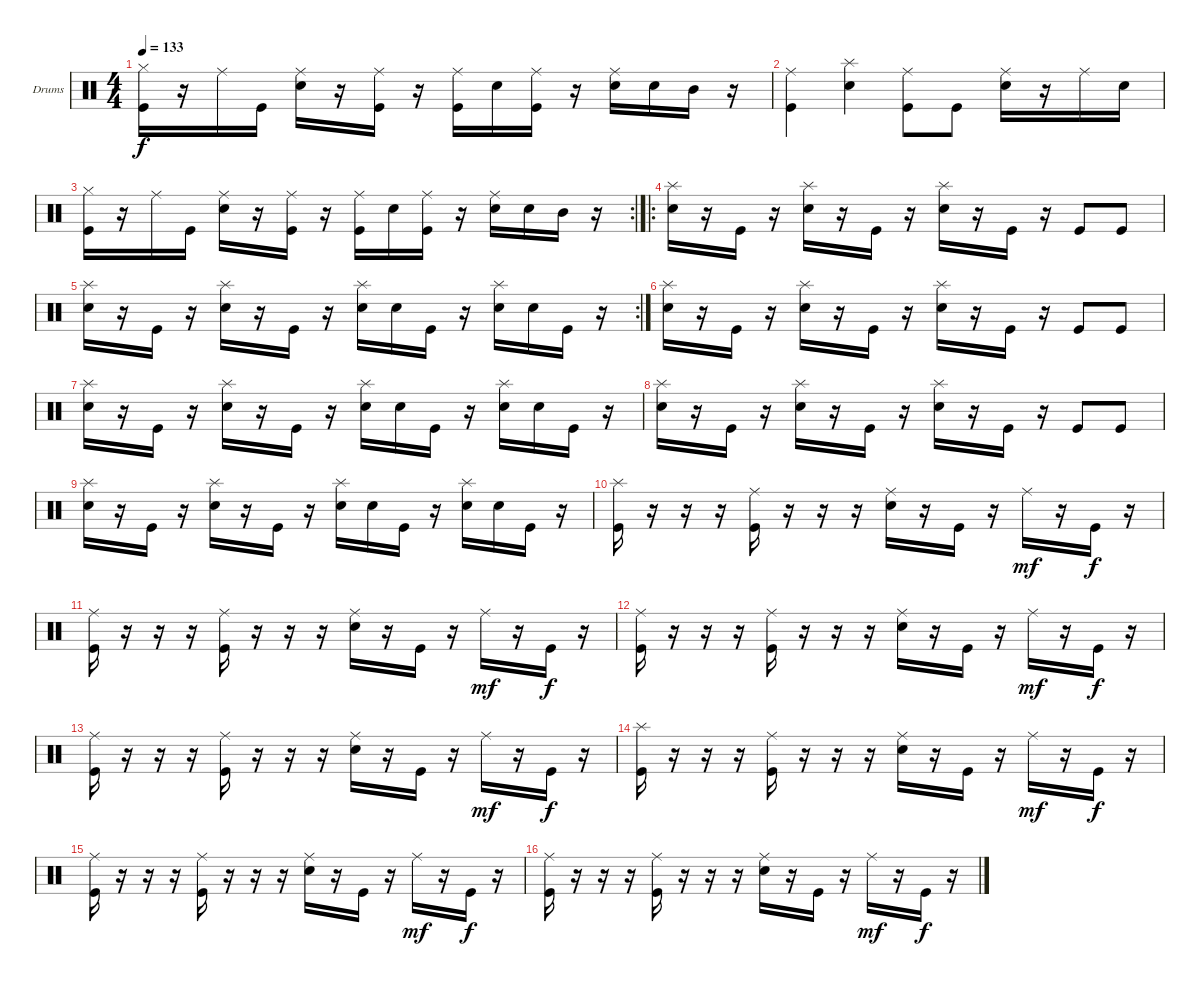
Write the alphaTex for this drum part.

\bracketExtendMode groupsimilarinstruments
\firstSystemTrackNameOrientation horizontal
\otherSystemsTrackNameOrientation horizontal
\track ("Drumkit" "Drums") {instrument percussion}
\staff {score}
\articulation defaults
\ts (4 4)
\tempo 133
\clef neutral
\ks c
("Kick (hit)" "Hi-Hat (closed)").16{dy f} r.16 "Ride (middle)".16 "Kick (hit)".16 ("Snare (hit) 2" "Ride (middle)").16 r.16 ("Kick (hit)" "Ride (middle)").16 r.16 ("Ride (middle)" "Kick (hit)").16 "Snare (hit) 2".16 ("Kick (hit)" "Ride (middle)").16 r.16 ("Snare (hit) 2" "Ride (middle)").16 "Snare (hit) 2".16 "Mid Tom (hit)".16 r.16 |
("Kick (hit)" "Ride (middle)").4 ("Snare (hit) 2" "Splash (hit)").4 ("Kick (hit)" "Ride (middle)").8 "Kick (hit)".8 ("Snare (hit) 2" "Ride (middle)").16 r.16 "Ride (middle)".16 "Snare (hit) 2".16 |
\rc 2
("Kick (hit)" "Hi-Hat (closed)").16 r.16 "Ride (middle)".16 "Kick (hit)".16 ("Snare (hit) 2" "Ride (middle)").16 r.16 ("Kick (hit)" "Ride (middle)").16 r.16 ("Ride (middle)" "Kick (hit)").16 "Snare (hit) 2".16 ("Kick (hit)" "Ride (middle)").16 r.16 ("Snare (hit) 2" "Ride (middle)").16 "Snare (hit) 2".16 "Mid Tom (hit)".16 r.16 |
\ro
("Splash (hit)" "Snare (hit) 2").16 r.16 "Kick (hit)".16 r.16 ("Splash (hit)" "Snare (hit) 2").16 r.16 "Kick (hit)".16 r.16 ("Splash (hit)" "Snare (hit) 2").16 r.16 "Kick (hit)".16 r.16 "Kick (hit)".8 "Kick (hit)".8 |
\rc 2
("Splash (hit)" "Snare (hit) 2").16 r.16 "Kick (hit)".16 r.16 ("Splash (hit)" "Snare (hit) 2").16 r.16 "Kick (hit)".16 r.16 ("Splash (hit)" "Snare (hit) 2").16 "Snare (hit) 2".16 "Kick (hit)".16 r.16 ("Splash (hit)" "Snare (hit) 2").16 "Snare (hit) 2".16 "Kick (hit)".16 r.16 |
("Splash (hit)" "Snare (hit) 2").16 r.16 "Kick (hit)".16 r.16 ("Splash (hit)" "Snare (hit) 2").16 r.16 "Kick (hit)".16 r.16 ("Splash (hit)" "Snare (hit) 2").16 r.16 "Kick (hit)".16 r.16 "Kick (hit)".8 "Kick (hit)".8 |
("Splash (hit)" "Snare (hit) 2").16 r.16 "Kick (hit)".16 r.16 ("Splash (hit)" "Snare (hit) 2").16 r.16 "Kick (hit)".16 r.16 ("Splash (hit)" "Snare (hit) 2").16 "Snare (hit) 2".16 "Kick (hit)".16 r.16 ("Splash (hit)" "Snare (hit) 2").16 "Snare (hit) 2".16 "Kick (hit)".16 r.16 |
("Splash (hit)" "Snare (hit) 2").16 r.16 "Kick (hit)".16 r.16 ("Splash (hit)" "Snare (hit) 2").16 r.16 "Kick (hit)".16 r.16 ("Splash (hit)" "Snare (hit) 2").16 r.16 "Kick (hit)".16 r.16 "Kick (hit)".8 "Kick (hit)".8 |
("Splash (hit)" "Snare (hit) 2").16 r.16 "Kick (hit)".16 r.16 ("Splash (hit)" "Snare (hit) 2").16 r.16 "Kick (hit)".16 r.16 ("Splash (hit)" "Snare (hit) 2").16 "Snare (hit) 2".16 "Kick (hit)".16 r.16 ("Splash (hit)" "Snare (hit) 2").16 "Snare (hit) 2".16 "Kick (hit)".16 r.16 |
("Splash (hit)" "Kick (hit)").16 r.16 r.16 r.16 ("Kick (hit)" "Ride (middle)").16 r.16 r.16 r.16 ("Snare (hit) 2" "Ride (middle)").16 r.16 "Kick (hit)".16 r.16 "Ride (middle)".16{dy mf} r.16 "Kick (hit)".16{dy f} r.16 |
("Kick (hit)" "Ride (middle)").16 r.16 r.16 r.16 ("Kick (hit)" "Ride (middle)").16 r.16 r.16 r.16 ("Snare (hit) 2" "Ride (middle)").16 r.16 "Kick (hit)".16 r.16 "Ride (middle)".16{dy mf} r.16 "Kick (hit)".16{dy f} r.16 |
("Kick (hit)" "Ride (middle)").16 r.16 r.16 r.16 ("Kick (hit)" "Ride (middle)").16 r.16 r.16 r.16 ("Snare (hit) 2" "Ride (middle)").16 r.16 "Kick (hit)".16 r.16 "Ride (middle)".16{dy mf} r.16 "Kick (hit)".16{dy f} r.16 |
("Kick (hit)" "Ride (middle)").16 r.16 r.16 r.16 ("Kick (hit)" "Ride (middle)").16 r.16 r.16 r.16 ("Snare (hit) 2" "Ride (middle)").16 r.16 "Kick (hit)".16 r.16 "Ride (middle)".16{dy mf} r.16 "Kick (hit)".16{dy f} r.16 |
("Kick (hit)" "Splash (hit)").16 r.16 r.16 r.16 ("Kick (hit)" "Ride (middle)").16 r.16 r.16 r.16 ("Snare (hit) 2" "Ride (middle)").16 r.16 "Kick (hit)".16 r.16 "Ride (middle)".16{dy mf} r.16 "Kick (hit)".16{dy f} r.16 |
("Kick (hit)" "Ride (middle)").16 r.16 r.16 r.16 ("Kick (hit)" "Ride (middle)").16 r.16 r.16 r.16 ("Snare (hit) 2" "Ride (middle)").16 r.16 "Kick (hit)".16 r.16 "Ride (middle)".16{dy mf} r.16 "Kick (hit)".16{dy f} r.16 |
("Kick (hit)" "Ride (middle)").16 r.16 r.16 r.16 ("Kick (hit)" "Ride (middle)").16 r.16 r.16 r.16 ("Snare (hit) 2" "Ride (middle)").16 r.16 "Kick (hit)".16 r.16 "Ride (middle)".16{dy mf} r.16 "Kick (hit)".16{dy f} r.16
